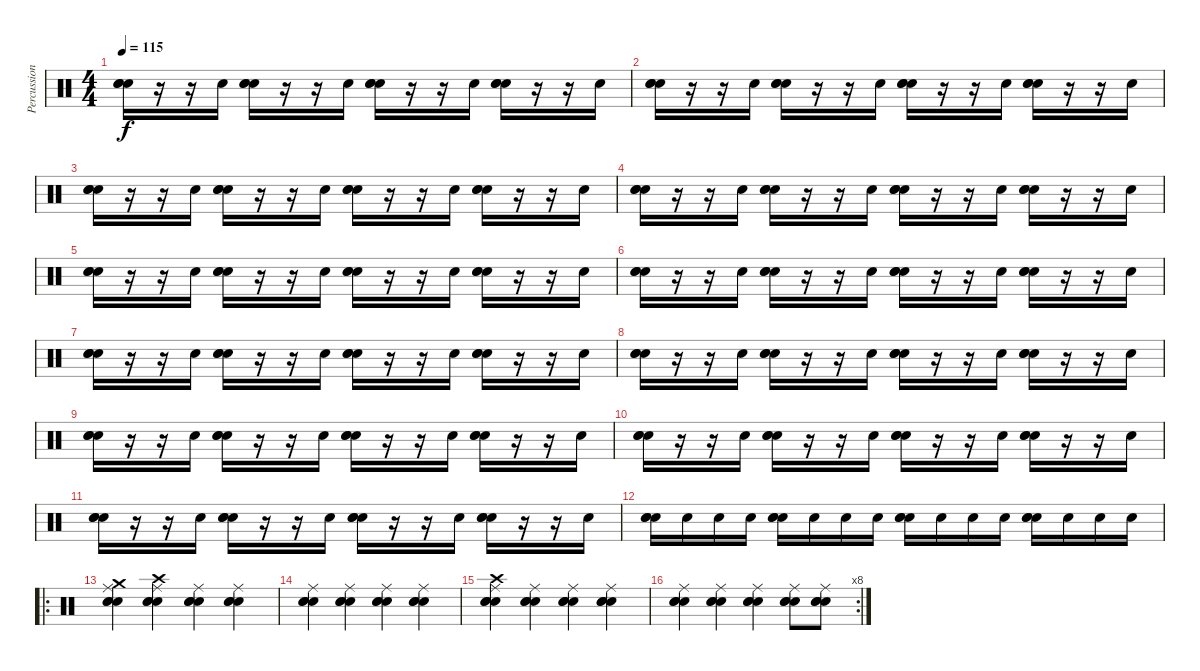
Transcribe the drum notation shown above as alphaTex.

\track ("Percussion" "Percussion") {instrument percussion}
\staff {score}
\articulation defaults
\ts (4 4)
\tempo 115
\clef neutral
\ks c
("Electric Snare (hit)" "Electric Snare (hit)" "Electric Snare (hit)").16{dy f} r.16 r.16 "Electric Snare (hit)".16 ("Electric Snare (hit)" "Electric Snare (hit)" "Electric Snare (hit)").16 r.16 r.16 "Electric Snare (hit)".16 ("Electric Snare (hit)" "Electric Snare (hit)" "Electric Snare (hit)").16 r.16 r.16 "Electric Snare (hit)".16 ("Electric Snare (hit)" "Electric Snare (hit)" "Electric Snare (hit)").16 r.16 r.16 "Electric Snare (hit)".16 |
("Electric Snare (hit)" "Electric Snare (hit)" "Electric Snare (hit)").16 r.16 r.16 "Electric Snare (hit)".16 ("Electric Snare (hit)" "Electric Snare (hit)" "Electric Snare (hit)").16 r.16 r.16 "Electric Snare (hit)".16 ("Electric Snare (hit)" "Electric Snare (hit)" "Electric Snare (hit)").16 r.16 r.16 "Electric Snare (hit)".16 ("Electric Snare (hit)" "Electric Snare (hit)" "Electric Snare (hit)").16 r.16 r.16 "Electric Snare (hit)".16 |
("Electric Snare (hit)" "Electric Snare (hit)" "Electric Snare (hit)").16 r.16 r.16 "Electric Snare (hit)".16 ("Electric Snare (hit)" "Electric Snare (hit)" "Electric Snare (hit)").16 r.16 r.16 "Electric Snare (hit)".16 ("Electric Snare (hit)" "Electric Snare (hit)" "Electric Snare (hit)").16 r.16 r.16 "Electric Snare (hit)".16 ("Electric Snare (hit)" "Electric Snare (hit)" "Electric Snare (hit)").16 r.16 r.16 "Electric Snare (hit)".16 |
("Electric Snare (hit)" "Electric Snare (hit)" "Electric Snare (hit)").16 r.16 r.16 "Electric Snare (hit)".16 ("Electric Snare (hit)" "Electric Snare (hit)" "Electric Snare (hit)").16 r.16 r.16 "Electric Snare (hit)".16 ("Electric Snare (hit)" "Electric Snare (hit)" "Electric Snare (hit)").16 r.16 r.16 "Electric Snare (hit)".16 ("Electric Snare (hit)" "Electric Snare (hit)" "Electric Snare (hit)").16 r.16 r.16 "Electric Snare (hit)".16 |
("Electric Snare (hit)" "Electric Snare (hit)" "Electric Snare (hit)").16 r.16 r.16 "Electric Snare (hit)".16 ("Electric Snare (hit)" "Electric Snare (hit)" "Electric Snare (hit)").16 r.16 r.16 "Electric Snare (hit)".16 ("Electric Snare (hit)" "Electric Snare (hit)" "Electric Snare (hit)").16 r.16 r.16 "Electric Snare (hit)".16 ("Electric Snare (hit)" "Electric Snare (hit)" "Electric Snare (hit)").16 r.16 r.16 "Electric Snare (hit)".16 |
("Electric Snare (hit)" "Electric Snare (hit)" "Electric Snare (hit)").16 r.16 r.16 "Electric Snare (hit)".16 ("Electric Snare (hit)" "Electric Snare (hit)" "Electric Snare (hit)").16 r.16 r.16 "Electric Snare (hit)".16 ("Electric Snare (hit)" "Electric Snare (hit)" "Electric Snare (hit)").16 r.16 r.16 "Electric Snare (hit)".16 ("Electric Snare (hit)" "Electric Snare (hit)" "Electric Snare (hit)").16 r.16 r.16 "Electric Snare (hit)".16 |
("Electric Snare (hit)" "Electric Snare (hit)" "Electric Snare (hit)").16 r.16 r.16 "Electric Snare (hit)".16 ("Electric Snare (hit)" "Electric Snare (hit)" "Electric Snare (hit)").16 r.16 r.16 "Electric Snare (hit)".16 ("Electric Snare (hit)" "Electric Snare (hit)" "Electric Snare (hit)").16 r.16 r.16 "Electric Snare (hit)".16 ("Electric Snare (hit)" "Electric Snare (hit)" "Electric Snare (hit)").16 r.16 r.16 "Electric Snare (hit)".16 |
("Electric Snare (hit)" "Electric Snare (hit)" "Electric Snare (hit)").16 r.16 r.16 "Electric Snare (hit)".16 ("Electric Snare (hit)" "Electric Snare (hit)" "Electric Snare (hit)").16 r.16 r.16 "Electric Snare (hit)".16 ("Electric Snare (hit)" "Electric Snare (hit)" "Electric Snare (hit)").16 r.16 r.16 "Electric Snare (hit)".16 ("Electric Snare (hit)" "Electric Snare (hit)" "Electric Snare (hit)").16 r.16 r.16 "Electric Snare (hit)".16 |
("Electric Snare (hit)" "Electric Snare (hit)" "Electric Snare (hit)").16 r.16 r.16 "Electric Snare (hit)".16 ("Electric Snare (hit)" "Electric Snare (hit)" "Electric Snare (hit)").16 r.16 r.16 "Electric Snare (hit)".16 ("Electric Snare (hit)" "Electric Snare (hit)" "Electric Snare (hit)").16 r.16 r.16 "Electric Snare (hit)".16 ("Electric Snare (hit)" "Electric Snare (hit)" "Electric Snare (hit)").16 r.16 r.16 "Electric Snare (hit)".16 |
("Electric Snare (hit)" "Electric Snare (hit)" "Electric Snare (hit)").16 r.16 r.16 "Electric Snare (hit)".16 ("Electric Snare (hit)" "Electric Snare (hit)" "Electric Snare (hit)").16 r.16 r.16 "Electric Snare (hit)".16 ("Electric Snare (hit)" "Electric Snare (hit)" "Electric Snare (hit)").16 r.16 r.16 "Electric Snare (hit)".16 ("Electric Snare (hit)" "Electric Snare (hit)" "Electric Snare (hit)").16 r.16 r.16 "Electric Snare (hit)".16 |
("Electric Snare (hit)" "Electric Snare (hit)" "Electric Snare (hit)").16 r.16 r.16 "Electric Snare (hit)".16 ("Electric Snare (hit)" "Electric Snare (hit)" "Electric Snare (hit)").16 r.16 r.16 "Electric Snare (hit)".16 ("Electric Snare (hit)" "Electric Snare (hit)" "Electric Snare (hit)").16 r.16 r.16 "Electric Snare (hit)".16 ("Electric Snare (hit)" "Electric Snare (hit)" "Electric Snare (hit)").16 r.16 r.16 "Electric Snare (hit)".16 |
("Electric Snare (hit)" "Electric Snare (hit)" "Electric Snare (hit)").16 "Electric Snare (hit)".16 "Electric Snare (hit)".16 "Electric Snare (hit)".16 ("Electric Snare (hit)" "Electric Snare (hit)" "Electric Snare (hit)").16 "Electric Snare (hit)".16 "Electric Snare (hit)".16 "Electric Snare (hit)".16 ("Electric Snare (hit)" "Electric Snare (hit)" "Electric Snare (hit)").16 "Electric Snare (hit)".16 "Electric Snare (hit)".16 "Electric Snare (hit)".16 ("Electric Snare (hit)" "Electric Snare (hit)" "Electric Snare (hit)").16 "Electric Snare (hit)".16 "Electric Snare (hit)".16 "Electric Snare (hit)".16 |
\ro
("Electric Snare (hit)" "Electric Snare (hit)" "Electric Snare (hit)" "Crash medium (hit)" "Ride (middle)").4 ("Electric Snare (hit)" "Electric Snare (hit)" "Electric Snare (hit)" "Crash high (hit)" "Ride (middle)").4 ("Electric Snare (hit)" "Electric Snare (hit)" "Electric Snare (hit)" "Ride (middle)").4 ("Electric Snare (hit)" "Electric Snare (hit)" "Electric Snare (hit)" "Ride (middle)").4 |
("Electric Snare (hit)" "Electric Snare (hit)" "Electric Snare (hit)" "Ride (middle)").4 ("Electric Snare (hit)" "Electric Snare (hit)" "Electric Snare (hit)" "Ride (middle)").4 ("Electric Snare (hit)" "Electric Snare (hit)" "Electric Snare (hit)" "Ride (middle)").4 ("Electric Snare (hit)" "Electric Snare (hit)" "Electric Snare (hit)" "Ride (middle)").4 |
("Electric Snare (hit)" "Electric Snare (hit)" "Electric Snare (hit)" "Crash high (hit)" "Ride (middle)").4 ("Electric Snare (hit)" "Electric Snare (hit)" "Electric Snare (hit)" "Ride (middle)").4 ("Electric Snare (hit)" "Electric Snare (hit)" "Electric Snare (hit)" "Ride (middle)").4 ("Electric Snare (hit)" "Electric Snare (hit)" "Electric Snare (hit)" "Ride (middle)").4 |
\rc 8
("Electric Snare (hit)" "Electric Snare (hit)" "Electric Snare (hit)" "Ride (middle)").4 ("Electric Snare (hit)" "Electric Snare (hit)" "Electric Snare (hit)" "Ride (middle)").4 ("Electric Snare (hit)" "Electric Snare (hit)" "Electric Snare (hit)" "Ride (middle)").4 ("Electric Snare (hit)" "Electric Snare (hit)" "Electric Snare (hit)" "Ride (middle)").8 ("Electric Snare (hit)" "Electric Snare (hit)" "Electric Snare (hit)" "Ride (middle)").8
